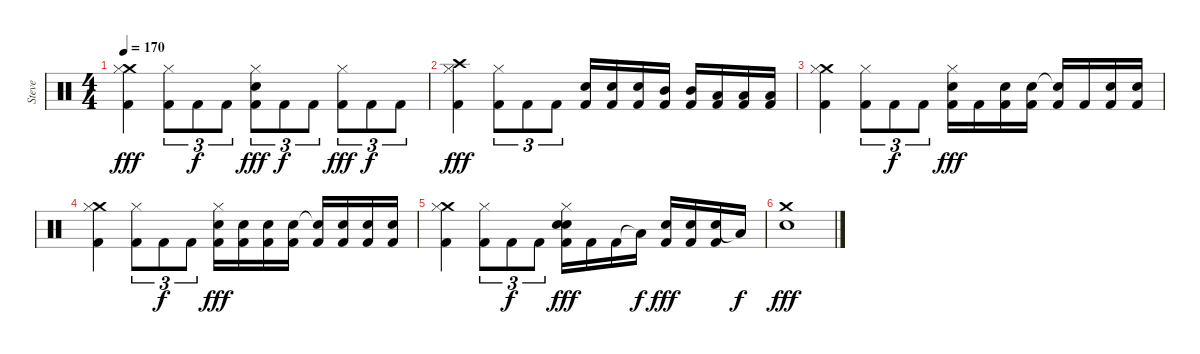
\track ("Steve" "Steve") {instrument percussion}
\staff {score}
\articulation defaults
\ts (4 4)
\tempo 170
\clef neutral
\ks c
("Crash medium (hit)" "Hi-Hat (closed)" "Kick (hit) 2").4{dy fff} ("Hi-Hat (closed)" "Kick (hit) 2").8{tu (3 2)} "Kick (hit) 2".8{tu (3 2) dy f} "Kick (hit) 2".8{tu (3 2)} ("Snare (hit) 2" "Hi-Hat (closed)" "Kick (hit) 2").8{tu (3 2) dy fff} "Kick (hit) 2".8{tu (3 2) dy f} "Kick (hit) 2".8{tu (3 2)} ("Hi-Hat (closed)" "Kick (hit) 2").8{tu (3 2) dy fff} "Kick (hit) 2".8{tu (3 2) dy f} "Kick (hit) 2".8{tu (3 2)} |
("Crash high (hit)" "Hi-Hat (closed)" "Kick (hit) 2").4{dy fff} ("Hi-Hat (closed)" "Kick (hit) 2").8{tu (3 2)} "Kick (hit) 2".8{tu (3 2)} "Kick (hit) 2".8{tu (3 2)} ("Snare (hit) 2" "Kick (hit) 2").16 ("Snare (hit) 2" "Kick (hit) 2").16 ("Snare (hit) 2" "Kick (hit) 2").16 ("Mid Tom (hit)" "Kick (hit) 2").16 ("Mid Tom (hit)" "Kick (hit) 2").16 ("Low Tom (hit)" "Kick (hit) 2").16 ("Low Tom (hit)" "Kick (hit) 2").16 ("Low Tom (hit)" "Kick (hit) 2").16 |
("Crash medium (hit)" "Hi-Hat (closed)" "Kick (hit) 2").4 ("Hi-Hat (closed)" "Kick (hit) 2").8{tu (3 2)} "Kick (hit) 2".8{tu (3 2) dy f} "Kick (hit) 2".8{tu (3 2)} ("Snare (hit) 2" "Hi-Hat (closed)" "Kick (hit) 2").16{dy fff} "Kick (hit) 2".16 ("Snare (hit) 2" "Kick (hit) 2").16 ("Snare (hit) 2" "Kick (hit) 2").16 ("Electric Snare (hit)"{t} "Kick (hit) 2").16 "Kick (hit) 2".16 ("Snare (hit) 2" "Kick (hit) 2").16 ("Snare (hit) 2" "Kick (hit) 2").16 |
("Crash medium (hit)" "Hi-Hat (closed)" "Kick (hit) 2").4 ("Hi-Hat (closed)" "Kick (hit) 2").8{tu (3 2)} "Kick (hit) 2".8{tu (3 2) dy f} "Kick (hit) 2".8{tu (3 2)} ("Snare (hit) 2" "Hi-Hat (closed)" "Kick (hit) 2").16{dy fff} ("Snare (hit) 2" "Kick (hit) 2").16 ("Snare (hit) 2" "Kick (hit) 2").16 ("Snare (hit) 2" "Kick (hit) 2").16 ("Electric Snare (hit)"{t} "Kick (hit) 2").16 ("Snare (hit) 2" "Kick (hit) 2").16 ("Snare (hit) 2" "Kick (hit) 2").16 ("Snare (hit) 2" "Kick (hit) 2").16 |
("Crash medium (hit)" "Hi-Hat (closed)" "Kick (hit) 2").4 ("Hi-Hat (closed)" "Kick (hit) 2").8{tu (3 2)} "Kick (hit) 2".8{tu (3 2) dy f} "Kick (hit) 2".8{tu (3 2)} ("Snare (hit) 2" "Snare (hit) 2" "Hi-Hat (closed)" "Kick (hit) 2").16{dy fff} "Kick (hit) 2".16 "Kick (hit) 2".16 "Low Floor Tom (hit)"{t}.16{dy f} ("Snare (hit) 2" "Kick (hit) 2").16{dy fff} ("Snare (hit) 2" "Kick (hit) 2").16 ("Snare (hit) 2" "Kick (hit) 2").16 "Low Floor Tom (hit)"{t}.16{dy f} |
("Crash medium (hit)" "Snare (hit) 2").1{dy fff}
